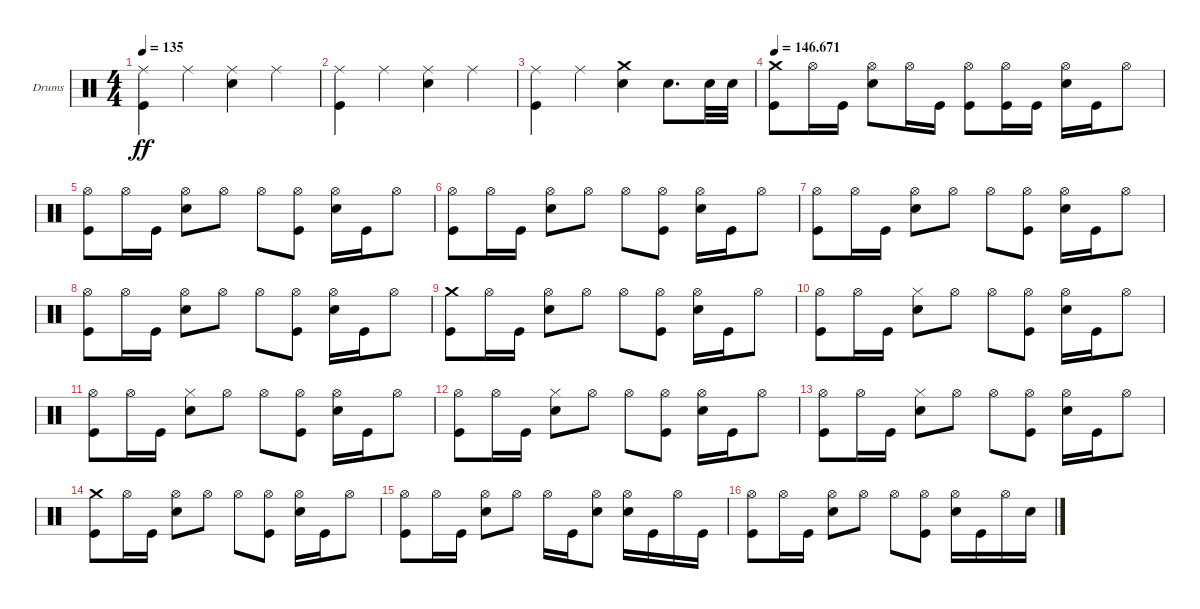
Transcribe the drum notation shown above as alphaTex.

\bracketExtendMode groupsimilarinstruments
\firstSystemTrackNameOrientation horizontal
\otherSystemsTrackNameOrientation horizontal
\track ("Drumkit" "Drums") {instrument percussion}
\staff {score}
\articulation defaults
\ts (4 4)
\tempo 135
\clef neutral
\ks c
("Ride (middle)" "Kick (hit)").4{dy ff} "Ride (middle)".4 ("Ride (middle)" "Snare (hit) 2").4 "Ride (middle)".4 |
("Ride (middle)" "Kick (hit)").4 "Ride (middle)".4 ("Ride (middle)" "Snare (hit) 2").4 "Ride (middle)".4 |
("Ride (middle)" "Kick (hit)").4 "Ride (middle)".4 ("Crash medium (hit)" "Snare (hit) 2").4 "Snare (hit) 2".8{d} "Snare (hit) 2".32 "Snare (hit) 2".32 |
\tempo
146.671 ("Crash medium (hit)" "Kick (hit)").8 "Hi-Hat (open)".16 "Kick (hit)".16 ("Hi-Hat (open)" "Snare (hit) 2").8 "Hi-Hat (open)".16 "Kick (hit)".16 ("Hi-Hat (open)" "Kick (hit)").8 ("Hi-Hat (open)" "Kick (hit)").16 "Kick (hit)".16 ("Hi-Hat (open)" "Snare (hit) 2").16 "Kick (hit)".16 "Hi-Hat (open)".8 |
("Hi-Hat (open)" "Kick (hit)").8 "Hi-Hat (open)".16 "Kick (hit)".16 ("Hi-Hat (open)" "Snare (hit) 2").8 "Hi-Hat (open)".8 "Hi-Hat (open)".8 ("Hi-Hat (open)" "Kick (hit)").8 ("Hi-Hat (open)" "Snare (hit) 2").16 "Kick (hit)".16 "Hi-Hat (open)".8 |
("Hi-Hat (open)" "Kick (hit)").8 "Hi-Hat (open)".16 "Kick (hit)".16 ("Hi-Hat (open)" "Snare (hit) 2").8 "Hi-Hat (open)".8 "Hi-Hat (open)".8 ("Hi-Hat (open)" "Kick (hit)").8 ("Hi-Hat (open)" "Snare (hit) 2").16 "Kick (hit)".16 "Hi-Hat (open)".8 |
("Hi-Hat (open)" "Kick (hit)").8 "Hi-Hat (open)".16 "Kick (hit)".16 ("Hi-Hat (open)" "Snare (hit) 2").8 "Hi-Hat (open)".8 "Hi-Hat (open)".8 ("Hi-Hat (open)" "Kick (hit)").8 ("Hi-Hat (open)" "Snare (hit) 2").16 "Kick (hit)".16 "Hi-Hat (open)".8 |
("Hi-Hat (open)" "Kick (hit)").8 "Hi-Hat (open)".16 "Kick (hit)".16 ("Hi-Hat (open)" "Snare (hit) 2").8 "Hi-Hat (open)".8 "Hi-Hat (open)".8 ("Hi-Hat (open)" "Kick (hit)").8 ("Hi-Hat (open)" "Snare (hit) 2").16 "Kick (hit)".16 "Hi-Hat (open)".8 |
("Crash medium (hit)" "Kick (hit)").8 "Hi-Hat (open)".16 "Kick (hit)".16 ("Hi-Hat (open)" "Snare (hit) 2").8 "Hi-Hat (open)".8 "Hi-Hat (open)".8 ("Hi-Hat (open)" "Kick (hit)").8 ("Hi-Hat (open)" "Snare (hit) 2").16 "Kick (hit)".16 "Hi-Hat (open)".8 |
("Hi-Hat (open)" "Kick (hit)").8 "Hi-Hat (open)".16 "Kick (hit)".16 ("Hi-Hat (closed)" "Snare (hit) 2").8 "Hi-Hat (open)".8 "Hi-Hat (open)".8 ("Hi-Hat (open)" "Kick (hit)").8 ("Hi-Hat (open)" "Snare (hit) 2").16 "Kick (hit)".16 "Hi-Hat (open)".8 |
("Hi-Hat (open)" "Kick (hit)").8 "Hi-Hat (open)".16 "Kick (hit)".16 ("Hi-Hat (closed)" "Snare (hit) 2").8 "Hi-Hat (open)".8 "Hi-Hat (open)".8 ("Hi-Hat (open)" "Kick (hit)").8 ("Hi-Hat (open)" "Snare (hit) 2").16 "Kick (hit)".16 "Hi-Hat (open)".8 |
("Hi-Hat (open)" "Kick (hit)").8 "Hi-Hat (open)".16 "Kick (hit)".16 ("Hi-Hat (closed)" "Snare (hit) 2").8 "Hi-Hat (open)".8 "Hi-Hat (open)".8 ("Hi-Hat (open)" "Kick (hit)").8 ("Hi-Hat (open)" "Snare (hit) 2").16 "Kick (hit)".16 "Hi-Hat (open)".8 |
("Hi-Hat (open)" "Kick (hit)").8 "Hi-Hat (open)".16 "Kick (hit)".16 ("Hi-Hat (closed)" "Snare (hit) 2").8 "Hi-Hat (open)".8 "Hi-Hat (open)".8 ("Hi-Hat (open)" "Kick (hit)").8 ("Hi-Hat (open)" "Snare (hit) 2").16 "Kick (hit)".16 "Hi-Hat (open)".8 |
("Kick (hit)" "Crash medium (hit)").8 "Hi-Hat (open)".16 "Kick (hit)".16 ("Hi-Hat (open)" "Snare (hit) 2").8 "Hi-Hat (open)".8 "Hi-Hat (open)".8 ("Hi-Hat (open)" "Kick (hit)").8 ("Hi-Hat (open)" "Snare (hit) 2").16 "Kick (hit)".16 "Hi-Hat (open)".8 |
("Hi-Hat (open)" "Kick (hit)").8 "Hi-Hat (open)".16 "Kick (hit)".16 ("Hi-Hat (open)" "Snare (hit) 2").8 "Hi-Hat (open)".8 "Hi-Hat (open)".16 "Kick (hit)".16 ("Hi-Hat (open)" "Snare (hit) 2").8 ("Hi-Hat (open)" "Snare (hit) 2").16 "Kick (hit)".16 "Hi-Hat (open)".16 "Kick (hit)".16 |
("Hi-Hat (open)" "Kick (hit)").8 "Hi-Hat (open)".16 "Kick (hit)".16 ("Hi-Hat (open)" "Snare (hit) 2").8 "Hi-Hat (open)".8 "Hi-Hat (open)".8 ("Hi-Hat (open)" "Kick (hit)").8 ("Hi-Hat (open)" "Snare (hit) 2").16 "Kick (hit)".16 "Hi-Hat (open)".16 "Snare (hit) 2".16
